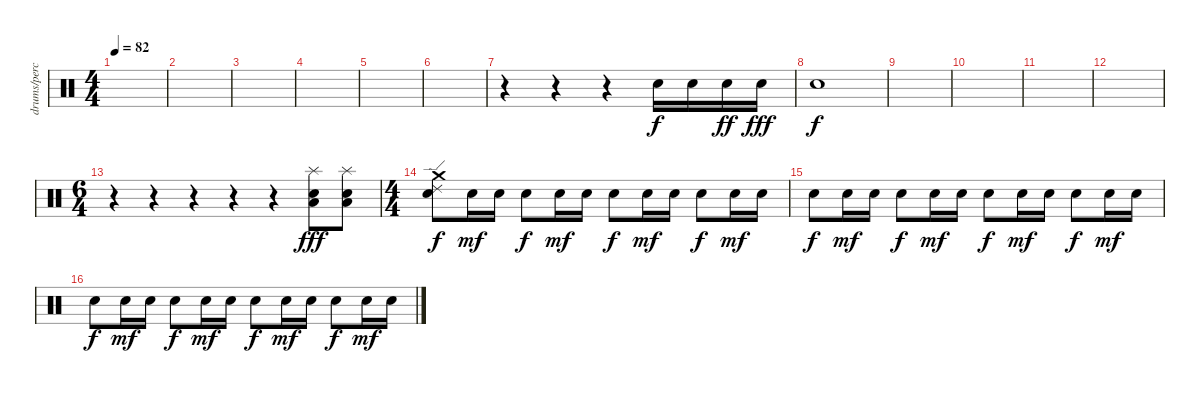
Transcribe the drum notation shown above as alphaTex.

\track ("drums/percussion" "drums/perc") {instrument percussion}
\staff {score}
\articulation defaults
\ts (4 4)
\tempo 82
\clef neutral
\ks c
|
|
|
|
|
|
r.4 r.4 r.4 "Electric Snare (hit)".16 "Electric Snare (hit)".16 "Electric Snare (hit)".16{dy ff} "Electric Snare (hit)".16{dy fff} |
"Electric Snare (hit)".1{dy f} |
|
|
|
|
\ts (6 4)
r.4 r.4 r.4 r.4 r.4 ("Splash (hit)" "Low Floor Tom (hit)" "Electric Snare (hit)").8{dy fff} ("Splash (hit)" "Low Floor Tom (hit)" "Electric Snare (hit)").8 |
\ts (4 4)
("Crash medium (hit)" "Ride (edge) 2" "Electric Snare (hit)").8{dy f} "Electric Snare (hit)".16{dy mf} "Electric Snare (hit)".16 "Electric Snare (hit)".8{dy f} "Electric Snare (hit)".16{dy mf} "Electric Snare (hit)".16 "Electric Snare (hit)".8{dy f} "Electric Snare (hit)".16{dy mf} "Electric Snare (hit)".16 "Electric Snare (hit)".8{dy f} "Electric Snare (hit)".16{dy mf} "Electric Snare (hit)".16 |
"Electric Snare (hit)".8{dy f} "Electric Snare (hit)".16{dy mf} "Electric Snare (hit)".16 "Electric Snare (hit)".8{dy f} "Electric Snare (hit)".16{dy mf} "Electric Snare (hit)".16 "Electric Snare (hit)".8{dy f} "Electric Snare (hit)".16{dy mf} "Electric Snare (hit)".16 "Electric Snare (hit)".8{dy f} "Electric Snare (hit)".16{dy mf} "Electric Snare (hit)".16 |
"Electric Snare (hit)".8{dy f} "Electric Snare (hit)".16{dy mf} "Electric Snare (hit)".16 "Electric Snare (hit)".8{dy f} "Electric Snare (hit)".16{dy mf} "Electric Snare (hit)".16 "Electric Snare (hit)".8{dy f} "Electric Snare (hit)".16{dy mf} "Electric Snare (hit)".16 "Electric Snare (hit)".8{dy f} "Electric Snare (hit)".16{dy mf} "Electric Snare (hit)".16
